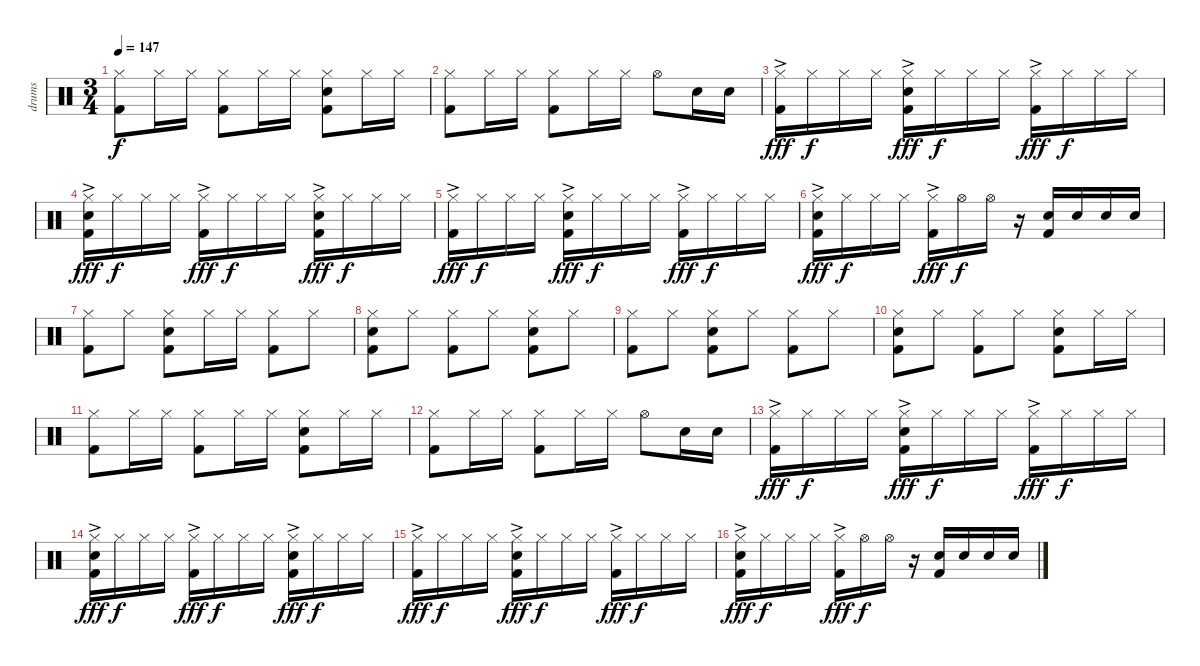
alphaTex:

\track ("drums" "drums") {instrument percussion}
\staff {score}
\articulation defaults
\ts (3 4)
\tempo 147
\clef neutral
\ks c
("Hi-Hat (closed)" "Kick (hit) 2").8{dy f} "Hi-Hat (closed)".16 "Hi-Hat (closed)".16 ("Hi-Hat (closed)" "Kick (hit) 2").8 "Hi-Hat (closed)".16 "Hi-Hat (closed)".16 ("Hi-Hat (closed)" "Snare (hit) 2" "Kick (hit) 2").8 "Hi-Hat (closed)".16 "Hi-Hat (closed)".16 |
("Hi-Hat (closed)" "Kick (hit) 2").8 "Hi-Hat (closed)".16 "Hi-Hat (closed)".16 ("Hi-Hat (closed)" "Kick (hit) 2").8 "Hi-Hat (closed)".16 "Hi-Hat (closed)".16 "Hi-Hat (open)".8 "Snare (hit) 2".16 "Snare (hit) 2".16 |
("Hi-Hat (closed)"{ac} "Kick (hit) 2").16{dy fff} "Hi-Hat (closed)".16{dy f} "Hi-Hat (closed)".16 "Hi-Hat (closed)".16 ("Hi-Hat (closed)"{ac} "Snare (hit) 2" "Kick (hit) 2").16{dy fff} "Hi-Hat (closed)".16{dy f} "Hi-Hat (closed)".16 "Hi-Hat (closed)".16 ("Hi-Hat (closed)"{ac} "Kick (hit) 2").16{dy fff} "Hi-Hat (closed)".16{dy f} "Hi-Hat (closed)".16 "Hi-Hat (closed)".16 |
("Hi-Hat (closed)"{ac} "Snare (hit) 2" "Kick (hit) 2").16{dy fff} "Hi-Hat (closed)".16{dy f} "Hi-Hat (closed)".16 "Hi-Hat (closed)".16 ("Hi-Hat (closed)"{ac} "Kick (hit) 2").16{dy fff} "Hi-Hat (closed)".16{dy f} "Hi-Hat (closed)".16 "Hi-Hat (closed)".16 ("Hi-Hat (closed)"{ac} "Snare (hit) 2" "Kick (hit) 2").16{dy fff} "Hi-Hat (closed)".16{dy f} "Hi-Hat (closed)".16 "Hi-Hat (closed)".16 |
("Hi-Hat (closed)"{ac} "Kick (hit) 2").16{dy fff} "Hi-Hat (closed)".16{dy f} "Hi-Hat (closed)".16 "Hi-Hat (closed)".16 ("Hi-Hat (closed)"{ac} "Snare (hit) 2" "Kick (hit) 2").16{dy fff} "Hi-Hat (closed)".16{dy f} "Hi-Hat (closed)".16 "Hi-Hat (closed)".16 ("Hi-Hat (closed)"{ac} "Kick (hit) 2").16{dy fff} "Hi-Hat (closed)".16{dy f} "Hi-Hat (closed)".16 "Hi-Hat (closed)".16 |
("Hi-Hat (closed)"{ac} "Snare (hit) 2" "Kick (hit) 2").16{dy fff} "Hi-Hat (closed)".16{dy f} "Hi-Hat (closed)".16 "Hi-Hat (closed)".16 ("Hi-Hat (closed)"{ac} "Kick (hit) 2").16{dy fff} "Hi-Hat (open)".16{dy f} "Hi-Hat (open)".16 r.16 ("Snare (hit) 2" "Kick (hit) 2").16 "Snare (hit) 2".16 "Snare (hit) 2".16 "Snare (hit) 2".16 |
("Hi-Hat (closed)" "Kick (hit) 2").8 "Hi-Hat (closed)".8 ("Hi-Hat (closed)" "Snare (hit) 2" "Kick (hit) 2").8 "Hi-Hat (closed)".16 "Hi-Hat (closed)".16 ("Hi-Hat (closed)" "Kick (hit) 2").8 "Hi-Hat (closed)".8 |
("Hi-Hat (closed)" "Snare (hit) 2" "Kick (hit) 2").8 "Hi-Hat (closed)".8 ("Hi-Hat (closed)" "Kick (hit) 2").8 "Hi-Hat (closed)".8 ("Hi-Hat (closed)" "Snare (hit) 2" "Kick (hit) 2").8 "Hi-Hat (closed)".8 |
("Hi-Hat (closed)" "Kick (hit) 2").8 "Hi-Hat (closed)".8 ("Hi-Hat (closed)" "Snare (hit) 2" "Kick (hit) 2").8 "Hi-Hat (closed)".8 ("Hi-Hat (closed)" "Kick (hit) 2").8 "Hi-Hat (closed)".8 |
("Hi-Hat (closed)" "Snare (hit) 2" "Kick (hit) 2").8 "Hi-Hat (closed)".8 ("Hi-Hat (closed)" "Kick (hit) 2").8 "Hi-Hat (closed)".8 ("Hi-Hat (closed)" "Snare (hit) 2" "Kick (hit) 2").8 "Hi-Hat (closed)".16 "Hi-Hat (closed)".16 |
("Hi-Hat (closed)" "Kick (hit) 2").8 "Hi-Hat (closed)".16 "Hi-Hat (closed)".16 ("Hi-Hat (closed)" "Kick (hit) 2").8 "Hi-Hat (closed)".16 "Hi-Hat (closed)".16 ("Hi-Hat (closed)" "Snare (hit) 2" "Kick (hit) 2").8 "Hi-Hat (closed)".16 "Hi-Hat (closed)".16 |
("Hi-Hat (closed)" "Kick (hit) 2").8 "Hi-Hat (closed)".16 "Hi-Hat (closed)".16 ("Hi-Hat (closed)" "Kick (hit) 2").8 "Hi-Hat (closed)".16 "Hi-Hat (closed)".16 "Hi-Hat (open)".8 "Snare (hit) 2".16 "Snare (hit) 2".16 |
("Hi-Hat (closed)"{ac} "Kick (hit) 2").16{dy fff} "Hi-Hat (closed)".16{dy f} "Hi-Hat (closed)".16 "Hi-Hat (closed)".16 ("Hi-Hat (closed)"{ac} "Snare (hit) 2" "Kick (hit) 2").16{dy fff} "Hi-Hat (closed)".16{dy f} "Hi-Hat (closed)".16 "Hi-Hat (closed)".16 ("Hi-Hat (closed)"{ac} "Kick (hit) 2").16{dy fff} "Hi-Hat (closed)".16{dy f} "Hi-Hat (closed)".16 "Hi-Hat (closed)".16 |
("Hi-Hat (closed)"{ac} "Snare (hit) 2" "Kick (hit) 2").16{dy fff} "Hi-Hat (closed)".16{dy f} "Hi-Hat (closed)".16 "Hi-Hat (closed)".16 ("Hi-Hat (closed)"{ac} "Kick (hit) 2").16{dy fff} "Hi-Hat (closed)".16{dy f} "Hi-Hat (closed)".16 "Hi-Hat (closed)".16 ("Hi-Hat (closed)"{ac} "Snare (hit) 2" "Kick (hit) 2").16{dy fff} "Hi-Hat (closed)".16{dy f} "Hi-Hat (closed)".16 "Hi-Hat (closed)".16 |
("Hi-Hat (closed)"{ac} "Kick (hit) 2").16{dy fff} "Hi-Hat (closed)".16{dy f} "Hi-Hat (closed)".16 "Hi-Hat (closed)".16 ("Hi-Hat (closed)"{ac} "Snare (hit) 2" "Kick (hit) 2").16{dy fff} "Hi-Hat (closed)".16{dy f} "Hi-Hat (closed)".16 "Hi-Hat (closed)".16 ("Hi-Hat (closed)"{ac} "Kick (hit) 2").16{dy fff} "Hi-Hat (closed)".16{dy f} "Hi-Hat (closed)".16 "Hi-Hat (closed)".16 |
("Hi-Hat (closed)"{ac} "Snare (hit) 2" "Kick (hit) 2").16{dy fff} "Hi-Hat (closed)".16{dy f} "Hi-Hat (closed)".16 "Hi-Hat (closed)".16 ("Hi-Hat (closed)"{ac} "Kick (hit) 2").16{dy fff} "Hi-Hat (open)".16{dy f} "Hi-Hat (open)".16 r.16 ("Snare (hit) 2" "Kick (hit) 2").16 "Snare (hit) 2".16 "Snare (hit) 2".16 "Snare (hit) 2".16
